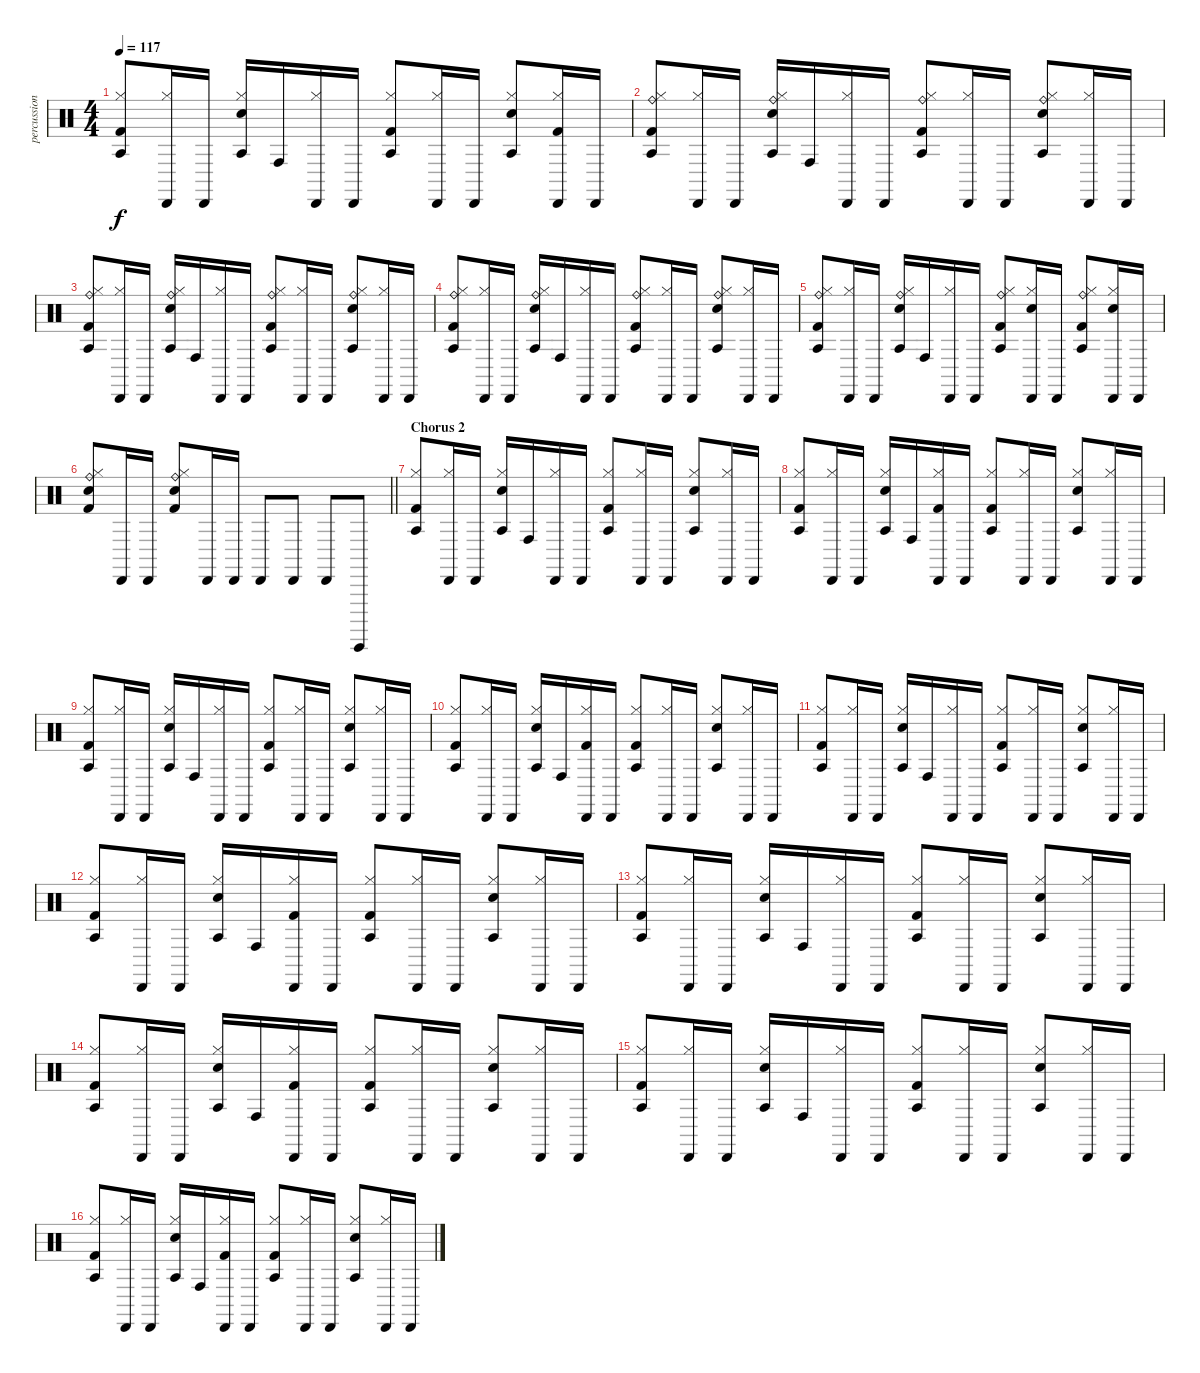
\track ("percussion" "percussion") {instrument percussion}
\staff {score}
\articulation defaults
\ts (4 4)
\tempo 117
\clef neutral
\ks c
("Agogo tow (hit)" "Hi-Hat (closed)" "Kick (hit) 2").8{dy f} ("Cabasa (hit)" "Hi-Hat (closed)").16 "Cabasa (hit)".16 ("Agogo tow (hit)" "Snare (hit) 2" "Hi-Hat (closed)").16 "Conga high (hit)".16 ("Cabasa (hit)" "Hi-Hat (closed)").16 "Cabasa (hit)".16 ("Agogo tow (hit)" "Hi-Hat (closed)" "Kick (hit) 2").8 ("Cabasa (hit)" "Hi-Hat (closed)").16 "Cabasa (hit)".16 ("Agogo tow (hit)" "Snare (hit) 2" "Hi-Hat (closed)").8 ("Cabasa (hit)" "Hi-Hat (closed)" "Kick (hit) 2").16 "Cabasa (hit)".16 |
("Ride (bell)" "Agogo tow (hit)" "Hi-Hat (closed)" "Kick (hit) 2").8 ("Cabasa (hit)" "Hi-Hat (closed)").16 "Cabasa (hit)".16 ("Ride (bell)" "Agogo tow (hit)" "Snare (hit) 2" "Hi-Hat (closed)").16 "Conga high (hit)".16 ("Cabasa (hit)" "Hi-Hat (closed)").16 "Cabasa (hit)".16 ("Ride (bell)" "Agogo tow (hit)" "Hi-Hat (closed)" "Kick (hit) 2").8 ("Cabasa (hit)" "Hi-Hat (closed)").16 "Cabasa (hit)".16 ("Ride (bell)" "Agogo tow (hit)" "Snare (hit) 2" "Hi-Hat (closed)").8 ("Cabasa (hit)" "Hi-Hat (closed)").16 "Cabasa (hit)".16 |
("Ride (bell)" "Agogo tow (hit)" "Hi-Hat (closed)" "Kick (hit) 2").8 ("Cabasa (hit)" "Hi-Hat (closed)").16 "Cabasa (hit)".16 ("Ride (bell)" "Agogo tow (hit)" "Snare (hit) 2" "Hi-Hat (closed)").16 "Conga high (hit)".16 ("Cabasa (hit)" "Hi-Hat (closed)").16 "Cabasa (hit)".16 ("Ride (bell)" "Agogo tow (hit)" "Hi-Hat (closed)" "Kick (hit) 2").8 ("Cabasa (hit)" "Hi-Hat (closed)").16 "Cabasa (hit)".16 ("Ride (bell)" "Agogo tow (hit)" "Snare (hit) 2" "Hi-Hat (closed)").8 ("Cabasa (hit)" "Hi-Hat (closed)").16 "Cabasa (hit)".16 |
("Ride (bell)" "Agogo tow (hit)" "Hi-Hat (closed)" "Kick (hit) 2").8 ("Cabasa (hit)" "Hi-Hat (closed)").16 "Cabasa (hit)".16 ("Ride (bell)" "Agogo tow (hit)" "Snare (hit) 2" "Hi-Hat (closed)").16 "Conga high (hit)".16 ("Cabasa (hit)" "Hi-Hat (closed)").16 "Cabasa (hit)".16 ("Ride (bell)" "Agogo tow (hit)" "Hi-Hat (closed)" "Kick (hit) 2").8 ("Cabasa (hit)" "Hi-Hat (closed)").16 "Cabasa (hit)".16 ("Ride (bell)" "Agogo tow (hit)" "Snare (hit) 2" "Hi-Hat (closed)").8 ("Cabasa (hit)" "Hi-Hat (closed)").16 "Cabasa (hit)".16 |
("Ride (bell)" "Agogo tow (hit)" "Hi-Hat (closed)" "Kick (hit) 2").8 ("Cabasa (hit)" "Hi-Hat (closed)").16 "Cabasa (hit)".16 ("Ride (bell)" "Agogo tow (hit)" "Snare (hit) 2" "Hi-Hat (closed)").16 "Conga high (hit)".16 ("Cabasa (hit)" "Hi-Hat (closed)").16 "Cabasa (hit)".16 ("Ride (bell)" "Agogo tow (hit)" "Hi-Hat (closed)" "Kick (hit) 2").8 ("Cabasa (hit)" "Snare (hit) 2" "Hi-Hat (closed)").16 "Cabasa (hit)".16 ("Ride (bell)" "Agogo tow (hit)" "Hi-Hat (closed)" "Kick (hit) 2").8 ("Cabasa (hit)" "Snare (hit) 2" "Hi-Hat (closed)").16 "Cabasa (hit)".16 |
\barLineRight lightlight
("Ride (bell)" "Snare (hit) 2" "Hi-Hat (closed)" "Kick (hit) 2").8 "Cabasa (hit)".16 "Cabasa (hit)".16 ("Ride (bell)" "Snare (hit) 2" "Hi-Hat (closed)" "Kick (hit) 2").8 "Cabasa (hit)".16 "Cabasa (hit)".16 "Cabasa (hit)".8 "Cabasa (hit)".8 "Cabasa (hit)".8 "Guiro (hit)".8 |
\section ("" "Chorus 2")
("Agogo tow (hit)" "Hi-Hat (closed)" "Kick (hit) 2").8 ("Cabasa (hit)" "Hi-Hat (closed)").16 "Cabasa (hit)".16 ("Agogo tow (hit)" "Snare (hit) 2" "Hi-Hat (closed)").16 "Conga high (hit)".16 ("Cabasa (hit)" "Hi-Hat (closed)").16 "Cabasa (hit)".16 ("Agogo tow (hit)" "Hi-Hat (closed)" "Kick (hit) 2").8 ("Cabasa (hit)" "Hi-Hat (closed)").16 "Cabasa (hit)".16 ("Agogo tow (hit)" "Snare (hit) 2" "Hi-Hat (closed)").8 ("Cabasa (hit)" "Hi-Hat (closed)").16 "Cabasa (hit)".16 |
("Agogo tow (hit)" "Hi-Hat (closed)" "Kick (hit) 2").8 ("Cabasa (hit)" "Hi-Hat (closed)").16 "Cabasa (hit)".16 ("Agogo tow (hit)" "Snare (hit) 2" "Hi-Hat (closed)").16 "Conga high (hit)".16 ("Cabasa (hit)" "Hi-Hat (closed)" "Kick (hit) 2").16 "Cabasa (hit)".16 ("Agogo tow (hit)" "Hi-Hat (closed)" "Kick (hit) 2").8 ("Cabasa (hit)" "Hi-Hat (closed)").16 "Cabasa (hit)".16 ("Agogo tow (hit)" "Snare (hit) 2" "Hi-Hat (closed)").8 ("Cabasa (hit)" "Hi-Hat (closed)").16 "Cabasa (hit)".16 |
("Agogo tow (hit)" "Hi-Hat (closed)" "Kick (hit) 2").8 ("Cabasa (hit)" "Hi-Hat (closed)").16 "Cabasa (hit)".16 ("Agogo tow (hit)" "Snare (hit) 2" "Hi-Hat (closed)").16 "Conga high (hit)".16 ("Cabasa (hit)" "Hi-Hat (closed)").16 "Cabasa (hit)".16 ("Agogo tow (hit)" "Hi-Hat (closed)" "Kick (hit) 2").8 ("Cabasa (hit)" "Hi-Hat (closed)").16 "Cabasa (hit)".16 ("Agogo tow (hit)" "Snare (hit) 2" "Hi-Hat (closed)").8 ("Cabasa (hit)" "Hi-Hat (closed)").16 "Cabasa (hit)".16 |
("Agogo tow (hit)" "Hi-Hat (closed)" "Kick (hit) 2").8 ("Cabasa (hit)" "Hi-Hat (closed)").16 "Cabasa (hit)".16 ("Agogo tow (hit)" "Snare (hit) 2" "Hi-Hat (closed)").16 "Conga high (hit)".16 ("Cabasa (hit)" "Hi-Hat (closed)" "Kick (hit) 2").16 "Cabasa (hit)".16 ("Agogo tow (hit)" "Hi-Hat (closed)" "Kick (hit) 2").8 ("Cabasa (hit)" "Hi-Hat (closed)").16 "Cabasa (hit)".16 ("Agogo tow (hit)" "Snare (hit) 2" "Hi-Hat (closed)").8 ("Cabasa (hit)" "Hi-Hat (closed)").16 "Cabasa (hit)".16 |
("Agogo tow (hit)" "Hi-Hat (closed)" "Kick (hit) 2").8 ("Cabasa (hit)" "Hi-Hat (closed)").16 "Cabasa (hit)".16 ("Agogo tow (hit)" "Snare (hit) 2" "Hi-Hat (closed)").16 "Conga high (hit)".16 ("Cabasa (hit)" "Hi-Hat (closed)").16 "Cabasa (hit)".16 ("Agogo tow (hit)" "Hi-Hat (closed)" "Kick (hit) 2").8 ("Cabasa (hit)" "Hi-Hat (closed)").16 "Cabasa (hit)".16 ("Agogo tow (hit)" "Snare (hit) 2" "Hi-Hat (closed)").8 ("Cabasa (hit)" "Hi-Hat (closed)").16 "Cabasa (hit)".16 |
("Agogo tow (hit)" "Hi-Hat (closed)" "Kick (hit) 2").8 ("Cabasa (hit)" "Hi-Hat (closed)").16 "Cabasa (hit)".16 ("Agogo tow (hit)" "Snare (hit) 2" "Hi-Hat (closed)").16 "Conga high (hit)".16 ("Cabasa (hit)" "Hi-Hat (closed)" "Kick (hit) 2").16 "Cabasa (hit)".16 ("Agogo tow (hit)" "Hi-Hat (closed)" "Kick (hit) 2").8 ("Cabasa (hit)" "Hi-Hat (closed)").16 "Cabasa (hit)".16 ("Agogo tow (hit)" "Snare (hit) 2" "Hi-Hat (closed)").8 ("Cabasa (hit)" "Hi-Hat (closed)").16 "Cabasa (hit)".16 |
("Agogo tow (hit)" "Hi-Hat (closed)" "Kick (hit) 2").8 ("Cabasa (hit)" "Hi-Hat (closed)").16 "Cabasa (hit)".16 ("Agogo tow (hit)" "Snare (hit) 2" "Hi-Hat (closed)").16 "Conga high (hit)".16 ("Cabasa (hit)" "Hi-Hat (closed)").16 "Cabasa (hit)".16 ("Agogo tow (hit)" "Hi-Hat (closed)" "Kick (hit) 2").8 ("Cabasa (hit)" "Hi-Hat (closed)").16 "Cabasa (hit)".16 ("Agogo tow (hit)" "Snare (hit) 2" "Hi-Hat (closed)").8 ("Cabasa (hit)" "Hi-Hat (closed)").16 "Cabasa (hit)".16 |
("Agogo tow (hit)" "Hi-Hat (closed)" "Kick (hit) 2").8 ("Cabasa (hit)" "Hi-Hat (closed)").16 "Cabasa (hit)".16 ("Agogo tow (hit)" "Snare (hit) 2" "Hi-Hat (closed)").16 "Conga high (hit)".16 ("Cabasa (hit)" "Hi-Hat (closed)" "Kick (hit) 2").16 "Cabasa (hit)".16 ("Agogo tow (hit)" "Hi-Hat (closed)" "Kick (hit) 2").8 ("Cabasa (hit)" "Hi-Hat (closed)").16 "Cabasa (hit)".16 ("Agogo tow (hit)" "Snare (hit) 2" "Hi-Hat (closed)").8 ("Cabasa (hit)" "Hi-Hat (closed)").16 "Cabasa (hit)".16 |
("Agogo tow (hit)" "Hi-Hat (closed)" "Kick (hit) 2").8 ("Cabasa (hit)" "Hi-Hat (closed)").16 "Cabasa (hit)".16 ("Agogo tow (hit)" "Snare (hit) 2" "Hi-Hat (closed)").16 "Conga high (hit)".16 ("Cabasa (hit)" "Hi-Hat (closed)").16 "Cabasa (hit)".16 ("Agogo tow (hit)" "Hi-Hat (closed)" "Kick (hit) 2").8 ("Cabasa (hit)" "Hi-Hat (closed)").16 "Cabasa (hit)".16 ("Agogo tow (hit)" "Snare (hit) 2" "Hi-Hat (closed)").8 ("Cabasa (hit)" "Hi-Hat (closed)").16 "Cabasa (hit)".16 |
("Agogo tow (hit)" "Hi-Hat (closed)" "Kick (hit) 2").8 ("Cabasa (hit)" "Hi-Hat (closed)").16 "Cabasa (hit)".16 ("Agogo tow (hit)" "Snare (hit) 2" "Hi-Hat (closed)").16 "Conga high (hit)".16 ("Cabasa (hit)" "Hi-Hat (closed)" "Kick (hit) 2").16 "Cabasa (hit)".16 ("Agogo tow (hit)" "Hi-Hat (closed)" "Kick (hit) 2").8 ("Cabasa (hit)" "Hi-Hat (closed)").16 "Cabasa (hit)".16 ("Agogo tow (hit)" "Snare (hit) 2" "Hi-Hat (closed)").8 ("Cabasa (hit)" "Hi-Hat (closed)").16 "Cabasa (hit)".16
